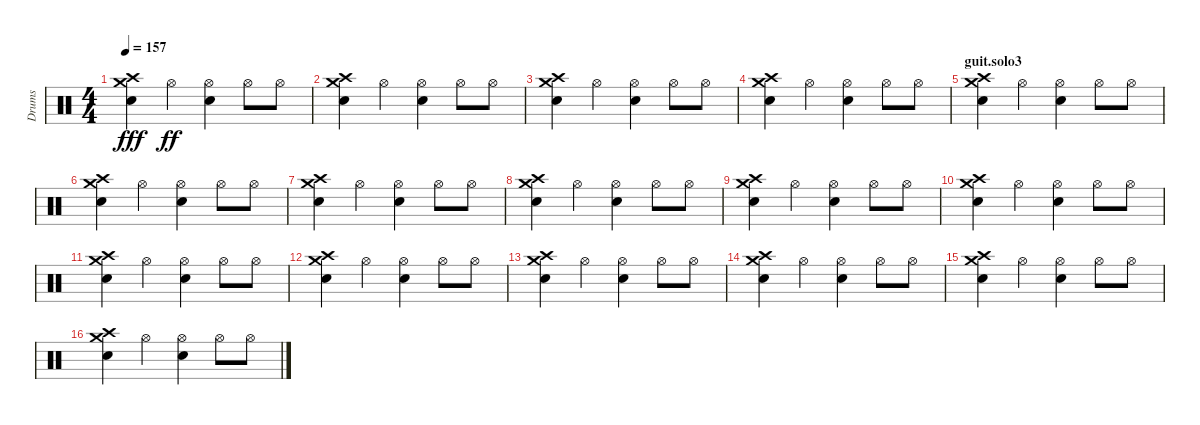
\track ("Drums" "Drums") {instrument percussion}
\staff {score}
\articulation defaults
\ts (4 4)
\tempo 157
\clef neutral
\ks c
("Crash high (hit)" "Crash medium (hit)" "Electric Snare (hit)").4{dy fff} "Hi-Hat (open)".4{dy ff} ("Electric Snare (hit)" "Hi-Hat (open)").4 "Hi-Hat (open)".8 "Hi-Hat (open)".8 |
("Crash high (hit)" "Crash medium (hit)" "Electric Snare (hit)").4 "Hi-Hat (open)".4 ("Electric Snare (hit)" "Hi-Hat (open)").4 "Hi-Hat (open)".8 "Hi-Hat (open)".8 |
("Crash high (hit)" "Crash medium (hit)" "Electric Snare (hit)").4 "Hi-Hat (open)".4 ("Electric Snare (hit)" "Hi-Hat (open)").4 "Hi-Hat (open)".8 "Hi-Hat (open)".8 |
("Crash high (hit)" "Crash medium (hit)" "Electric Snare (hit)").4 "Hi-Hat (open)".4 ("Electric Snare (hit)" "Hi-Hat (open)").4 "Hi-Hat (open)".8 "Hi-Hat (open)".8 |
\section ("" "guit.solo3")
("Crash high (hit)" "Crash medium (hit)" "Electric Snare (hit)").4 "Hi-Hat (open)".4 ("Electric Snare (hit)" "Hi-Hat (open)").4 "Hi-Hat (open)".8 "Hi-Hat (open)".8 |
("Crash high (hit)" "Crash medium (hit)" "Electric Snare (hit)").4 "Hi-Hat (open)".4 ("Electric Snare (hit)" "Hi-Hat (open)").4 "Hi-Hat (open)".8 "Hi-Hat (open)".8 |
("Crash high (hit)" "Crash medium (hit)" "Electric Snare (hit)").4 "Hi-Hat (open)".4 ("Electric Snare (hit)" "Hi-Hat (open)").4 "Hi-Hat (open)".8 "Hi-Hat (open)".8 |
("Crash high (hit)" "Crash medium (hit)" "Electric Snare (hit)").4 "Hi-Hat (open)".4 ("Electric Snare (hit)" "Hi-Hat (open)").4 "Hi-Hat (open)".8 "Hi-Hat (open)".8 |
("Crash high (hit)" "Crash medium (hit)" "Electric Snare (hit)").4 "Hi-Hat (open)".4 ("Electric Snare (hit)" "Hi-Hat (open)").4 "Hi-Hat (open)".8 "Hi-Hat (open)".8 |
("Crash high (hit)" "Crash medium (hit)" "Electric Snare (hit)").4 "Hi-Hat (open)".4 ("Electric Snare (hit)" "Hi-Hat (open)").4 "Hi-Hat (open)".8 "Hi-Hat (open)".8 |
("Crash high (hit)" "Crash medium (hit)" "Electric Snare (hit)").4 "Hi-Hat (open)".4 ("Electric Snare (hit)" "Hi-Hat (open)").4 "Hi-Hat (open)".8 "Hi-Hat (open)".8 |
("Crash high (hit)" "Crash medium (hit)" "Electric Snare (hit)").4 "Hi-Hat (open)".4 ("Electric Snare (hit)" "Hi-Hat (open)").4 "Hi-Hat (open)".8 "Hi-Hat (open)".8 |
("Crash high (hit)" "Crash medium (hit)" "Electric Snare (hit)").4 "Hi-Hat (open)".4 ("Electric Snare (hit)" "Hi-Hat (open)").4 "Hi-Hat (open)".8 "Hi-Hat (open)".8 |
("Crash high (hit)" "Crash medium (hit)" "Electric Snare (hit)").4 "Hi-Hat (open)".4 ("Electric Snare (hit)" "Hi-Hat (open)").4 "Hi-Hat (open)".8 "Hi-Hat (open)".8 |
("Crash high (hit)" "Crash medium (hit)" "Electric Snare (hit)").4 "Hi-Hat (open)".4 ("Electric Snare (hit)" "Hi-Hat (open)").4 "Hi-Hat (open)".8 "Hi-Hat (open)".8 |
("Crash high (hit)" "Crash medium (hit)" "Electric Snare (hit)").4 "Hi-Hat (open)".4 ("Electric Snare (hit)" "Hi-Hat (open)").4 "Hi-Hat (open)".8 "Hi-Hat (open)".8
